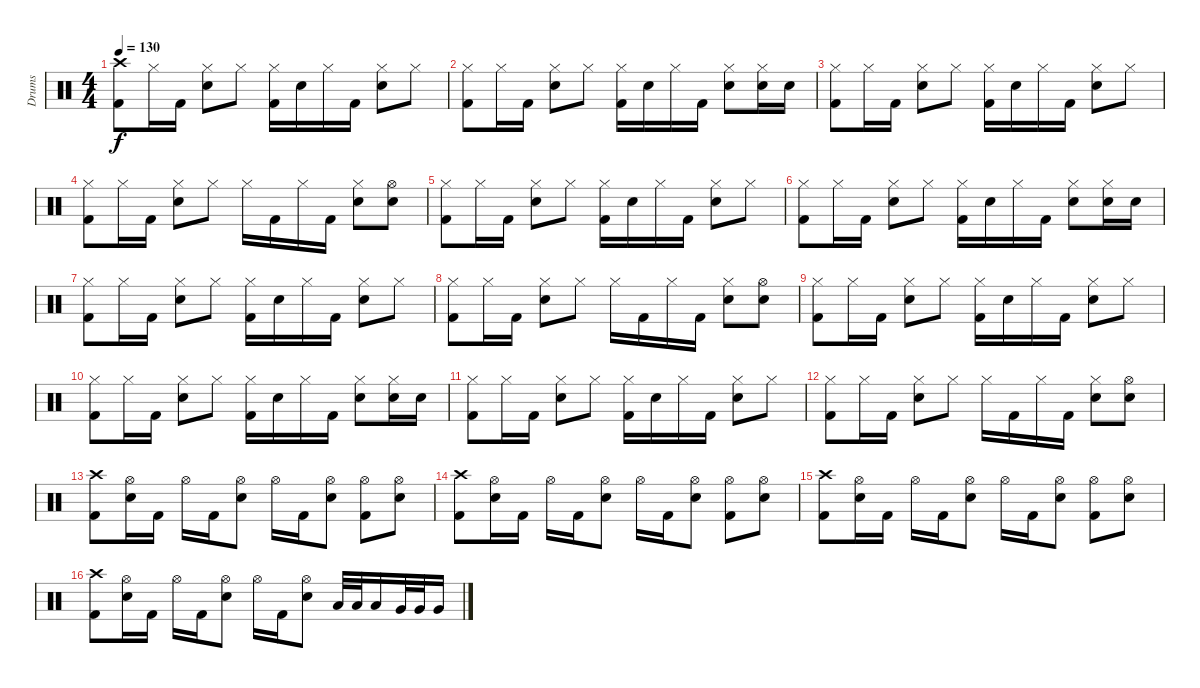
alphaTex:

\track ("Drums" "Drums") {instrument percussion}
\staff {score}
\articulation defaults
\ts (4 4)
\tempo 130
\clef neutral
\ks c
("Crash high (hit)" "Kick (hit) 2").8{dy f} "Hi-Hat (closed)".16 "Kick (hit) 2".16 ("Hi-Hat (closed)" "Electric Snare (hit)").8 "Hi-Hat (closed)".8 ("Hi-Hat (closed)" "Kick (hit) 2").16 "Electric Snare (hit)".16 "Hi-Hat (closed)".16 "Kick (hit) 2".16 ("Hi-Hat (closed)" "Electric Snare (hit)").8 "Hi-Hat (closed)".8 |
("Hi-Hat (closed)" "Kick (hit) 2").8 "Hi-Hat (closed)".16 "Kick (hit) 2".16 ("Hi-Hat (closed)" "Electric Snare (hit)").8 "Hi-Hat (closed)".8 ("Hi-Hat (closed)" "Kick (hit) 2").16 "Electric Snare (hit)".16 "Hi-Hat (closed)".16 "Kick (hit) 2".16 ("Hi-Hat (closed)" "Electric Snare (hit)").8 ("Hi-Hat (closed)" "Electric Snare (hit)").16 "Electric Snare (hit)".16 |
("Hi-Hat (closed)" "Kick (hit) 2").8 "Hi-Hat (closed)".16 "Kick (hit) 2".16 ("Hi-Hat (closed)" "Electric Snare (hit)").8 "Hi-Hat (closed)".8 ("Hi-Hat (closed)" "Kick (hit) 2").16 "Electric Snare (hit)".16 "Hi-Hat (closed)".16 "Kick (hit) 2".16 ("Hi-Hat (closed)" "Electric Snare (hit)").8 "Hi-Hat (closed)".8 |
("Hi-Hat (closed)" "Kick (hit) 2").8 "Hi-Hat (closed)".16 "Kick (hit) 2".16 ("Hi-Hat (closed)" "Electric Snare (hit)").8 "Hi-Hat (closed)".8 "Hi-Hat (closed)".16 "Kick (hit) 2".16 "Hi-Hat (closed)".16 "Kick (hit) 2".16 ("Hi-Hat (closed)" "Electric Snare (hit)").8 ("Hi-Hat (open)" "Electric Snare (hit)").8 |
("Hi-Hat (closed)" "Kick (hit) 2").8 "Hi-Hat (closed)".16 "Kick (hit) 2".16 ("Hi-Hat (closed)" "Electric Snare (hit)").8 "Hi-Hat (closed)".8 ("Hi-Hat (closed)" "Kick (hit) 2").16 "Electric Snare (hit)".16 "Hi-Hat (closed)".16 "Kick (hit) 2".16 ("Hi-Hat (closed)" "Electric Snare (hit)").8 "Hi-Hat (closed)".8 |
("Hi-Hat (closed)" "Kick (hit) 2").8 "Hi-Hat (closed)".16 "Kick (hit) 2".16 ("Hi-Hat (closed)" "Electric Snare (hit)").8 "Hi-Hat (closed)".8 ("Hi-Hat (closed)" "Kick (hit) 2").16 "Electric Snare (hit)".16 "Hi-Hat (closed)".16 "Kick (hit) 2".16 ("Hi-Hat (closed)" "Electric Snare (hit)").8 ("Hi-Hat (closed)" "Electric Snare (hit)").16 "Electric Snare (hit)".16 |
("Hi-Hat (closed)" "Kick (hit) 2").8 "Hi-Hat (closed)".16 "Kick (hit) 2".16 ("Hi-Hat (closed)" "Electric Snare (hit)").8 "Hi-Hat (closed)".8 ("Hi-Hat (closed)" "Kick (hit) 2").16 "Electric Snare (hit)".16 "Hi-Hat (closed)".16 "Kick (hit) 2".16 ("Hi-Hat (closed)" "Electric Snare (hit)").8 "Hi-Hat (closed)".8 |
("Hi-Hat (closed)" "Kick (hit) 2").8 "Hi-Hat (closed)".16 "Kick (hit) 2".16 ("Hi-Hat (closed)" "Electric Snare (hit)").8 "Hi-Hat (closed)".8 "Hi-Hat (closed)".16 "Kick (hit) 2".16 "Hi-Hat (closed)".16 "Kick (hit) 2".16 ("Hi-Hat (closed)" "Electric Snare (hit)").8 ("Hi-Hat (open)" "Electric Snare (hit)").8 |
("Hi-Hat (closed)" "Kick (hit) 2").8 "Hi-Hat (closed)".16 "Kick (hit) 2".16 ("Hi-Hat (closed)" "Electric Snare (hit)").8 "Hi-Hat (closed)".8 ("Hi-Hat (closed)" "Kick (hit) 2").16 "Electric Snare (hit)".16 "Hi-Hat (closed)".16 "Kick (hit) 2".16 ("Hi-Hat (closed)" "Electric Snare (hit)").8 "Hi-Hat (closed)".8 |
("Hi-Hat (closed)" "Kick (hit) 2").8 "Hi-Hat (closed)".16 "Kick (hit) 2".16 ("Hi-Hat (closed)" "Electric Snare (hit)").8 "Hi-Hat (closed)".8 ("Hi-Hat (closed)" "Kick (hit) 2").16 "Electric Snare (hit)".16 "Hi-Hat (closed)".16 "Kick (hit) 2".16 ("Hi-Hat (closed)" "Electric Snare (hit)").8 ("Hi-Hat (closed)" "Electric Snare (hit)").16 "Electric Snare (hit)".16 |
("Hi-Hat (closed)" "Kick (hit) 2").8 "Hi-Hat (closed)".16 "Kick (hit) 2".16 ("Hi-Hat (closed)" "Electric Snare (hit)").8 "Hi-Hat (closed)".8 ("Hi-Hat (closed)" "Kick (hit) 2").16 "Electric Snare (hit)".16 "Hi-Hat (closed)".16 "Kick (hit) 2".16 ("Hi-Hat (closed)" "Electric Snare (hit)").8 "Hi-Hat (closed)".8 |
("Hi-Hat (closed)" "Kick (hit) 2").8 "Hi-Hat (closed)".16 "Kick (hit) 2".16 ("Hi-Hat (closed)" "Electric Snare (hit)").8 "Hi-Hat (closed)".8 "Hi-Hat (closed)".16 "Kick (hit) 2".16 "Hi-Hat (closed)".16 "Kick (hit) 2".16 ("Hi-Hat (closed)" "Electric Snare (hit)").8 ("Hi-Hat (open)" "Electric Snare (hit)").8 |
("Crash high (hit)" "Kick (hit) 2").8 ("Hi-Hat (open)" "Electric Snare (hit)").16 "Kick (hit) 2".16 "Hi-Hat (open)".16 "Kick (hit) 2".16 ("Hi-Hat (open)" "Electric Snare (hit)").8 "Hi-Hat (open)".16 "Kick (hit) 2".16 ("Hi-Hat (open)" "Electric Snare (hit)").8 ("Hi-Hat (open)" "Kick (hit) 2").8 ("Hi-Hat (open)" "Electric Snare (hit)").8 |
("Crash high (hit)" "Kick (hit) 2").8 ("Hi-Hat (open)" "Electric Snare (hit)").16 "Kick (hit) 2".16 "Hi-Hat (open)".16 "Kick (hit) 2".16 ("Hi-Hat (open)" "Electric Snare (hit)").8 "Hi-Hat (open)".16 "Kick (hit) 2".16 ("Hi-Hat (open)" "Electric Snare (hit)").8 ("Hi-Hat (open)" "Kick (hit) 2").8 ("Hi-Hat (open)" "Electric Snare (hit)").8 |
("Crash high (hit)" "Kick (hit) 2").8 ("Hi-Hat (open)" "Electric Snare (hit)").16 "Kick (hit) 2".16 "Hi-Hat (open)".16 "Kick (hit) 2".16 ("Hi-Hat (open)" "Electric Snare (hit)").8 "Hi-Hat (open)".16 "Kick (hit) 2".16 ("Hi-Hat (open)" "Electric Snare (hit)").8 ("Hi-Hat (open)" "Kick (hit) 2").8 ("Hi-Hat (open)" "Electric Snare (hit)").8 |
("Crash high (hit)" "Kick (hit) 2").8 ("Hi-Hat (open)" "Electric Snare (hit)").16 "Kick (hit) 2".16 "Hi-Hat (open)".16 "Kick (hit) 2".16 ("Hi-Hat (open)" "Electric Snare (hit)").8 "Hi-Hat (open)".16 "Kick (hit) 2".16 ("Hi-Hat (open)" "Electric Snare (hit)").8 "Low Tom (hit)".32 "Low Tom (hit)".32 "Low Tom (hit)".16 "Very Low Tom (hit)".32 "Very Low Tom (hit)".32 "Very Low Tom (hit)".16
